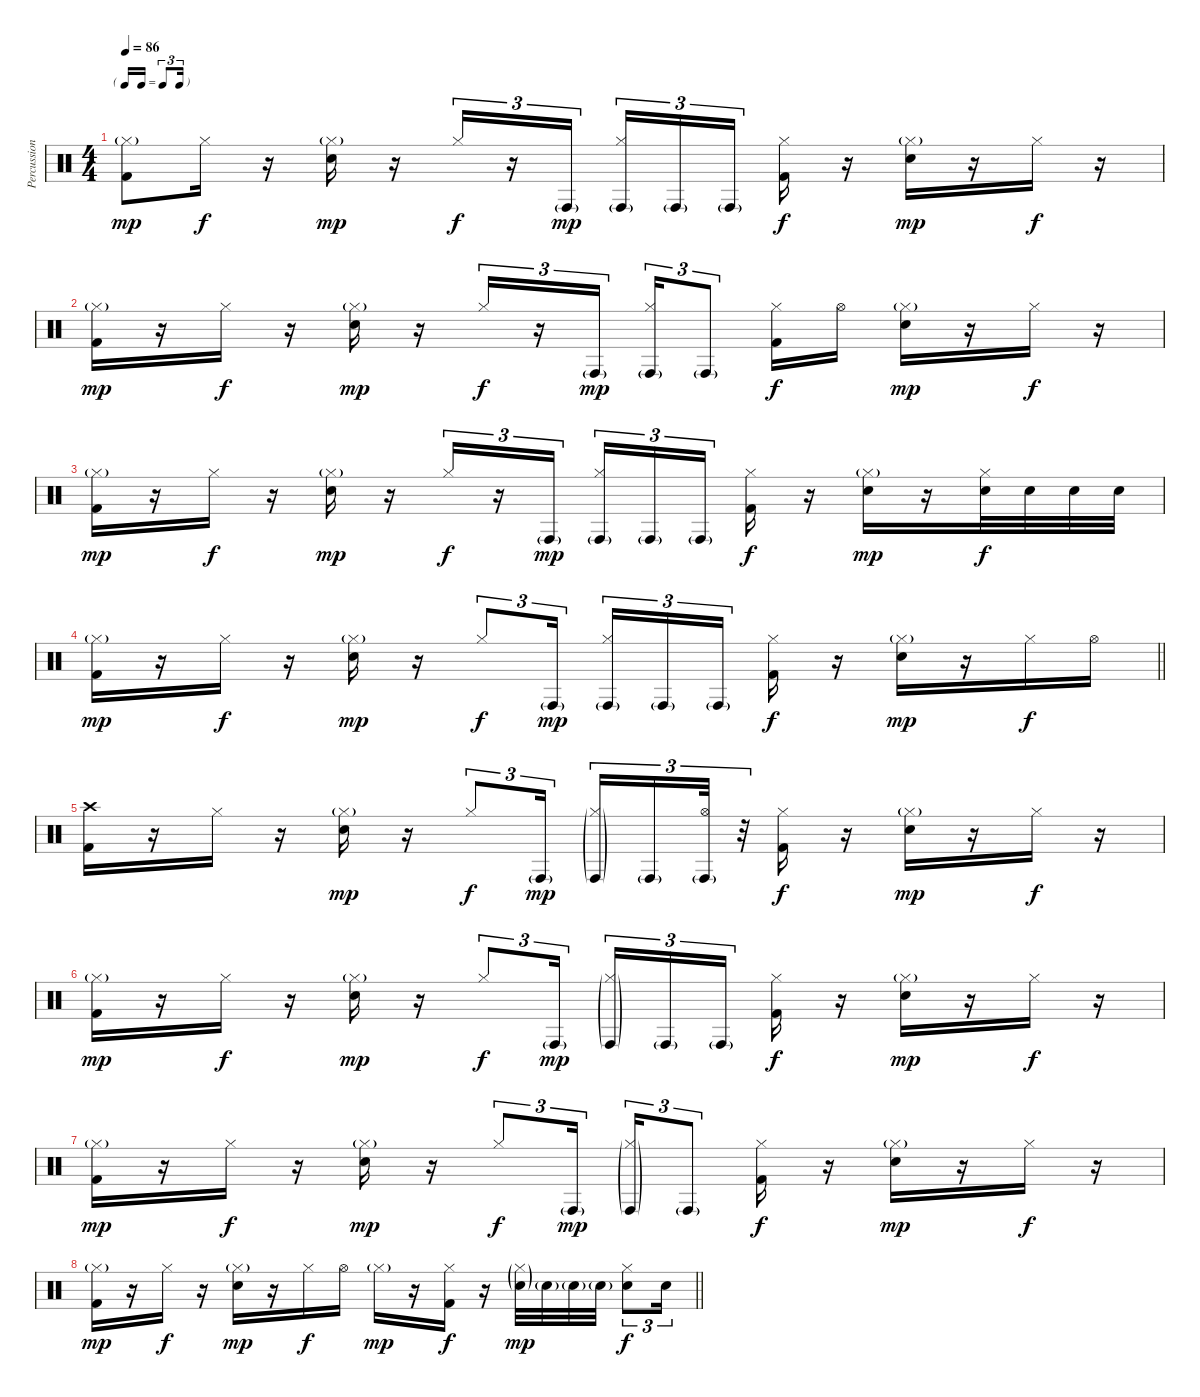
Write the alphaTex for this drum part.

\track ("Percussion" "Percussion") {instrument percussion}
\staff {score}
\articulation defaults
\ts (4 4)
\tf triplet16th
\tempo 86
\clef neutral
\ks c
("Hi-Hat (closed)"{g} "Kick (hit) 2").8{dy mp} "Hi-Hat (closed)".16{dy f} r.16 ("Hi-Hat (closed)"{g} "Electric Snare (hit)").16{dy mp} r.16 "Hi-Hat (closed)".16{tu (3 2) dy f} r.16{tu (3 2)} "Conga high (hit)"{g}.16{tu (3 2) dy mp} ("Conga high (hit)"{g} "Hi-Hat (closed)").16{tu (3 2)} "Conga high (hit)"{g}.16{tu (3 2)} "Conga high (hit)"{g}.16{tu (3 2) beam splitsecondary} ("Hi-Hat (closed)" "Kick (hit) 2").16{dy f} r.16 ("Hi-Hat (closed)"{g} "Electric Snare (hit)").16{dy mp} r.16 "Hi-Hat (closed)".16{dy f} r.16 |
("Hi-Hat (closed)"{g} "Kick (hit) 2").16{dy mp} r.16 "Hi-Hat (closed)".16{dy f} r.16 ("Hi-Hat (closed)"{g} "Electric Snare (hit)").16{dy mp} r.16 "Hi-Hat (closed)".16{tu (3 2) dy f} r.16{tu (3 2)} "Conga high (hit)"{g}.16{tu (3 2) dy mp} ("Conga high (hit)"{g} "Hi-Hat (closed)").16{tu (3 2)} "Conga high (hit)"{g}.8{tu (3 2)} ("Hi-Hat (closed)" "Kick (hit) 2").16{dy f} "Hi-Hat (open)".16 ("Hi-Hat (closed)"{g} "Electric Snare (hit)").16{dy mp} r.16 "Hi-Hat (closed)".16{dy f} r.16 |
("Hi-Hat (closed)"{g} "Kick (hit) 2").16{dy mp} r.16 "Hi-Hat (closed)".16{dy f} r.16 ("Hi-Hat (closed)"{g} "Electric Snare (hit)").16{dy mp} r.16 "Hi-Hat (closed)".16{tu (3 2) dy f} r.16{tu (3 2)} "Conga high (hit)"{g}.16{tu (3 2) dy mp} ("Conga high (hit)"{g} "Hi-Hat (closed)").16{tu (3 2)} "Conga high (hit)"{g}.16{tu (3 2)} "Conga high (hit)"{g}.16{tu (3 2) beam splitsecondary} ("Hi-Hat (closed)" "Kick (hit) 2").16{dy f} r.16 ("Hi-Hat (closed)"{g} "Electric Snare (hit)").16{dy mp} r.16 ("Hi-Hat (closed)" "Electric Snare (hit)").32{dy f} "Electric Snare (hit)".32 "Electric Snare (hit)".32 "Electric Snare (hit)".32 |
\barLineRight lightlight
("Hi-Hat (closed)"{g} "Kick (hit) 2").16{dy mp} r.16 "Hi-Hat (closed)".16{dy f} r.16 ("Hi-Hat (closed)"{g} "Electric Snare (hit)").16{dy mp} r.16 "Hi-Hat (closed)".8{tu (3 2) dy f} "Conga high (hit)"{g}.16{tu (3 2) dy mp} ("Conga high (hit)"{g} "Hi-Hat (closed)").16{tu (3 2)} "Conga high (hit)"{g}.16{tu (3 2)} "Conga high (hit)"{g}.16{tu (3 2) beam splitsecondary} ("Hi-Hat (closed)" "Kick (hit) 2").16{dy f} r.16 ("Hi-Hat (closed)"{g} "Electric Snare (hit)").16{dy mp} r.16 "Hi-Hat (closed)".16{dy f} "Hi-Hat (open)".16 |
("Crash high (hit)" "Kick (hit) 2").16 r.16 "Hi-Hat (closed)".16 r.16 ("Hi-Hat (closed)"{g} "Electric Snare (hit)").16{dy mp} r.16 "Hi-Hat (closed)".8{tu (3 2) dy f} "Conga high (hit)"{g}.16{tu (3 2) dy mp} ("Conga high (hit)"{g} "Hi-Hat (closed)"{g}).16{tu (3 2)} "Conga high (hit)"{g}.16{tu (3 2)} ("Conga high (hit)"{g} "Hi-Hat (open)").32{tu (3 2)} r.32{tu (3 2)} ("Hi-Hat (closed)" "Kick (hit) 2").16{dy f} r.16 ("Hi-Hat (closed)"{g} "Electric Snare (hit)").16{dy mp} r.16 "Hi-Hat (closed)".16{dy f} r.16 |
("Hi-Hat (closed)"{g} "Kick (hit) 2").16{dy mp} r.16 "Hi-Hat (closed)".16{dy f} r.16 ("Hi-Hat (closed)"{g} "Electric Snare (hit)").16{dy mp} r.16 "Hi-Hat (closed)".8{tu (3 2) dy f} "Conga high (hit)"{g}.16{tu (3 2) dy mp} ("Conga high (hit)"{g} "Hi-Hat (closed)"{g}).16{tu (3 2)} "Conga high (hit)"{g}.16{tu (3 2)} "Conga high (hit)"{g}.16{tu (3 2) beam splitsecondary} ("Hi-Hat (closed)" "Kick (hit) 2").16{dy f} r.16 ("Hi-Hat (closed)"{g} "Electric Snare (hit)").16{dy mp} r.16 "Hi-Hat (closed)".16{dy f} r.16 |
("Hi-Hat (closed)"{g} "Kick (hit) 2").16{dy mp} r.16 "Hi-Hat (closed)".16{dy f} r.16 ("Hi-Hat (closed)"{g} "Electric Snare (hit)").16{dy mp} r.16 "Hi-Hat (closed)".8{tu (3 2) dy f} "Conga high (hit)"{g}.16{tu (3 2) dy mp} ("Conga high (hit)"{g} "Hi-Hat (closed)"{g}).16{tu (3 2)} "Conga high (hit)"{g}.8{tu (3 2)} ("Hi-Hat (closed)" "Kick (hit) 2").16{dy f} r.16 ("Hi-Hat (closed)"{g} "Electric Snare (hit)").16{dy mp} r.16 "Hi-Hat (closed)".16{dy f} r.16 |
\barLineRight lightlight
("Hi-Hat (closed)"{g} "Kick (hit) 2").16{dy mp} r.16 "Hi-Hat (closed)".16{dy f} r.16 ("Hi-Hat (closed)"{g} "Electric Snare (hit)").16{dy mp} r.16 "Hi-Hat (closed)".16{dy f} "Hi-Hat (open)".16 "Hi-Hat (closed)"{g}.16{dy mp} r.16 ("Hi-Hat (closed)" "Kick (hit) 2").16{dy f} r.16 ("Hi-Hat (closed)"{g} "Electric Snare (hit)"{g}).32{dy mp} "Electric Snare (hit)"{g}.32 "Electric Snare (hit)"{g}.32 "Electric Snare (hit)"{g}.32 ("Hi-Hat (closed)" "Electric Snare (hit)").8{tu (3 2) dy f} "Electric Snare (hit)".16{tu (3 2)}
